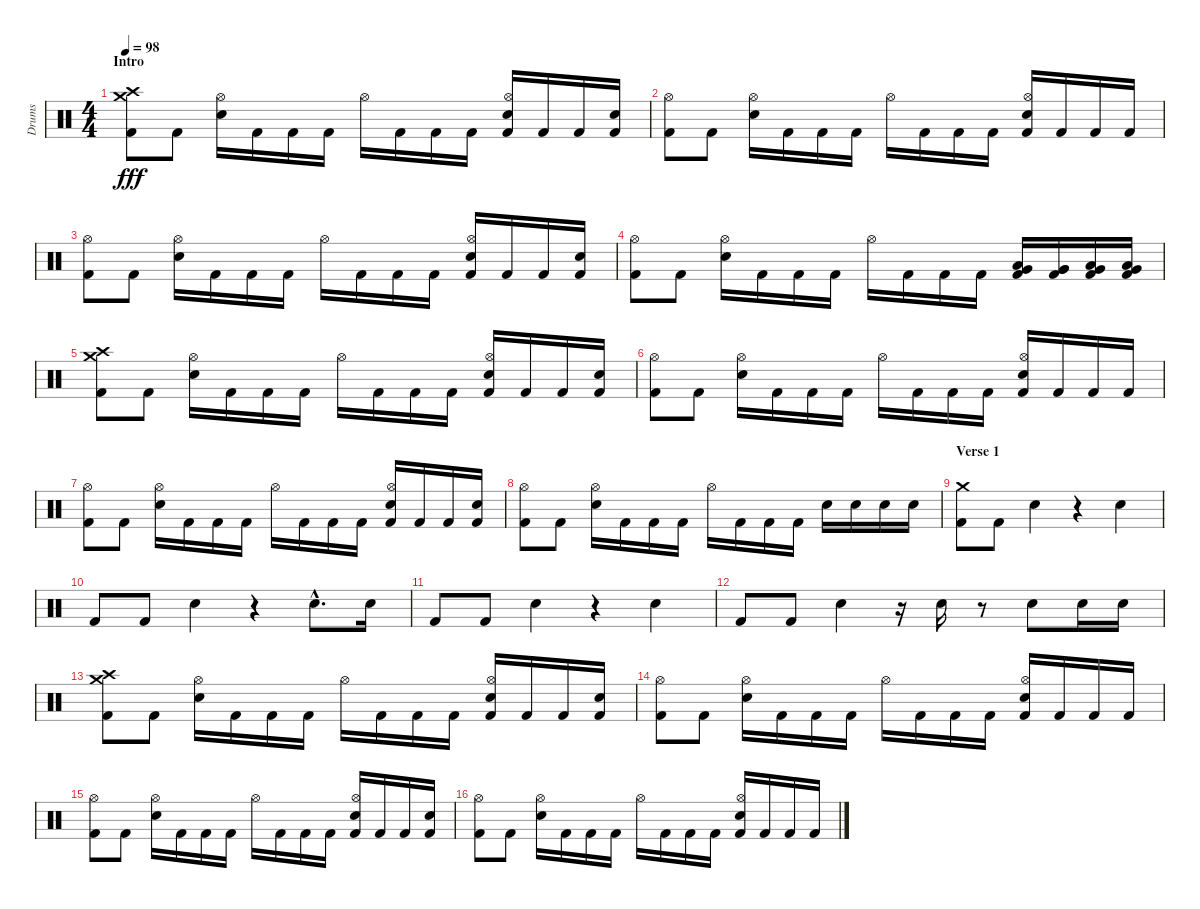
\track ("Drums" "Drums") {instrument percussion}
\staff {score}
\articulation defaults
\ts (4 4)
\section ("" "Intro")
\tempo 98
\clef neutral
\ks c
("Crash high (hit)" "Crash medium (hit)" "Kick (hit) 2").8{dy fff} "Kick (hit) 2".8 ("Hi-Hat (open)" "Electric Snare (hit)").16 "Kick (hit) 2".16 "Kick (hit) 2".16 "Kick (hit) 2".16 "Hi-Hat (open)".16 "Kick (hit) 2".16 "Kick (hit) 2".16 "Kick (hit) 2".16 ("Hi-Hat (open)" "Electric Snare (hit)" "Kick (hit) 2").16 "Kick (hit) 2".16 "Kick (hit) 2".16 ("Electric Snare (hit)" "Kick (hit) 2").16 |
("Hi-Hat (open)" "Kick (hit) 2").8 "Kick (hit) 2".8 ("Hi-Hat (open)" "Electric Snare (hit)").16 "Kick (hit) 2".16 "Kick (hit) 2".16 "Kick (hit) 2".16 "Hi-Hat (open)".16 "Kick (hit) 2".16 "Kick (hit) 2".16 "Kick (hit) 2".16 ("Hi-Hat (open)" "Electric Snare (hit)" "Kick (hit) 2").16 "Kick (hit) 2".16 "Kick (hit) 2".16 "Kick (hit) 2".16 |
("Hi-Hat (open)" "Kick (hit) 2").8 "Kick (hit) 2".8 ("Hi-Hat (open)" "Electric Snare (hit)").16 "Kick (hit) 2".16 "Kick (hit) 2".16 "Kick (hit) 2".16 "Hi-Hat (open)".16 "Kick (hit) 2".16 "Kick (hit) 2".16 "Kick (hit) 2".16 ("Hi-Hat (open)" "Electric Snare (hit)" "Kick (hit) 2").16 "Kick (hit) 2".16 "Kick (hit) 2".16 ("Electric Snare (hit)" "Kick (hit) 2").16 |
("Hi-Hat (open)" "Kick (hit) 2").8 "Kick (hit) 2".8 ("Hi-Hat (open)" "Electric Snare (hit)").16 "Kick (hit) 2".16 "Kick (hit) 2".16 "Kick (hit) 2".16 "Hi-Hat (open)".16 "Kick (hit) 2".16 "Kick (hit) 2".16 "Kick (hit) 2".16 ("Low Tom (hit)" "Very Low Tom (hit)" "Kick (hit) 2").16 ("Very Low Tom (hit)" "Very Low Tom (hit)" "Kick (hit) 2").16 ("Low Tom (hit)" "Very Low Tom (hit)" "Kick (hit) 2").16 ("Low Tom (hit)" "Very Low Tom (hit)" "Kick (hit) 2").16 |
("Crash high (hit)" "Crash medium (hit)" "Kick (hit) 2").8 "Kick (hit) 2".8 ("Hi-Hat (open)" "Electric Snare (hit)").16 "Kick (hit) 2".16 "Kick (hit) 2".16 "Kick (hit) 2".16 "Hi-Hat (open)".16 "Kick (hit) 2".16 "Kick (hit) 2".16 "Kick (hit) 2".16 ("Hi-Hat (open)" "Electric Snare (hit)" "Kick (hit) 2").16 "Kick (hit) 2".16 "Kick (hit) 2".16 ("Electric Snare (hit)" "Kick (hit) 2").16 |
("Hi-Hat (open)" "Kick (hit) 2").8 "Kick (hit) 2".8 ("Hi-Hat (open)" "Electric Snare (hit)").16 "Kick (hit) 2".16 "Kick (hit) 2".16 "Kick (hit) 2".16 "Hi-Hat (open)".16 "Kick (hit) 2".16 "Kick (hit) 2".16 "Kick (hit) 2".16 ("Hi-Hat (open)" "Electric Snare (hit)" "Kick (hit) 2").16 "Kick (hit) 2".16 "Kick (hit) 2".16 "Kick (hit) 2".16 |
("Hi-Hat (open)" "Kick (hit) 2").8 "Kick (hit) 2".8 ("Hi-Hat (open)" "Electric Snare (hit)").16 "Kick (hit) 2".16 "Kick (hit) 2".16 "Kick (hit) 2".16 "Hi-Hat (open)".16 "Kick (hit) 2".16 "Kick (hit) 2".16 "Kick (hit) 2".16 ("Hi-Hat (open)" "Electric Snare (hit)" "Kick (hit) 2").16 "Kick (hit) 2".16 "Kick (hit) 2".16 ("Electric Snare (hit)" "Kick (hit) 2").16 |
("Hi-Hat (open)" "Kick (hit) 2").8 "Kick (hit) 2".8 ("Hi-Hat (open)" "Electric Snare (hit)").16 "Kick (hit) 2".16 "Kick (hit) 2".16 "Kick (hit) 2".16 "Hi-Hat (open)".16 "Kick (hit) 2".16 "Kick (hit) 2".16 "Kick (hit) 2".16 "Electric Snare (hit)".16 "Electric Snare (hit)".16 "Electric Snare (hit)".16 "Electric Snare (hit)".16 |
\section ("" "Verse 1")
("Crash medium (hit)" "Kick (hit) 2").8 "Kick (hit) 2".8 "Electric Snare (hit)".4 r.4 "Electric Snare (hit)".4 |
"Kick (hit) 2".8 "Kick (hit) 2".8 "Electric Snare (hit)".4 r.4 "Electric Snare (hit)"{hac}.8{d} "Electric Snare (hit)".16 |
"Kick (hit) 2".8 "Kick (hit) 2".8 "Electric Snare (hit)".4 r.4 "Electric Snare (hit)".4 |
"Kick (hit) 2".8 "Kick (hit) 2".8 "Electric Snare (hit)".4 r.16 "Electric Snare (hit)".16 r.8 "Electric Snare (hit)".8 "Electric Snare (hit)".16 "Electric Snare (hit)".16 |
("Crash high (hit)" "Crash medium (hit)" "Kick (hit) 2").8 "Kick (hit) 2".8 ("Hi-Hat (open)" "Electric Snare (hit)").16 "Kick (hit) 2".16 "Kick (hit) 2".16 "Kick (hit) 2".16 "Hi-Hat (open)".16 "Kick (hit) 2".16 "Kick (hit) 2".16 "Kick (hit) 2".16 ("Hi-Hat (open)" "Electric Snare (hit)" "Kick (hit) 2").16 "Kick (hit) 2".16 "Kick (hit) 2".16 ("Electric Snare (hit)" "Kick (hit) 2").16 |
("Hi-Hat (open)" "Kick (hit) 2").8 "Kick (hit) 2".8 ("Hi-Hat (open)" "Electric Snare (hit)").16 "Kick (hit) 2".16 "Kick (hit) 2".16 "Kick (hit) 2".16 "Hi-Hat (open)".16 "Kick (hit) 2".16 "Kick (hit) 2".16 "Kick (hit) 2".16 ("Hi-Hat (open)" "Electric Snare (hit)" "Kick (hit) 2").16 "Kick (hit) 2".16 "Kick (hit) 2".16 "Kick (hit) 2".16 |
("Hi-Hat (open)" "Kick (hit) 2").8 "Kick (hit) 2".8 ("Hi-Hat (open)" "Electric Snare (hit)").16 "Kick (hit) 2".16 "Kick (hit) 2".16 "Kick (hit) 2".16 "Hi-Hat (open)".16 "Kick (hit) 2".16 "Kick (hit) 2".16 "Kick (hit) 2".16 ("Hi-Hat (open)" "Electric Snare (hit)" "Kick (hit) 2").16 "Kick (hit) 2".16 "Kick (hit) 2".16 ("Electric Snare (hit)" "Kick (hit) 2").16 |
("Hi-Hat (open)" "Kick (hit) 2").8 "Kick (hit) 2".8 ("Hi-Hat (open)" "Electric Snare (hit)").16 "Kick (hit) 2".16 "Kick (hit) 2".16 "Kick (hit) 2".16 "Hi-Hat (open)".16 "Kick (hit) 2".16 "Kick (hit) 2".16 "Kick (hit) 2".16 ("Hi-Hat (open)" "Electric Snare (hit)" "Kick (hit) 2").16 "Kick (hit) 2".16 "Kick (hit) 2".16 "Kick (hit) 2".16
